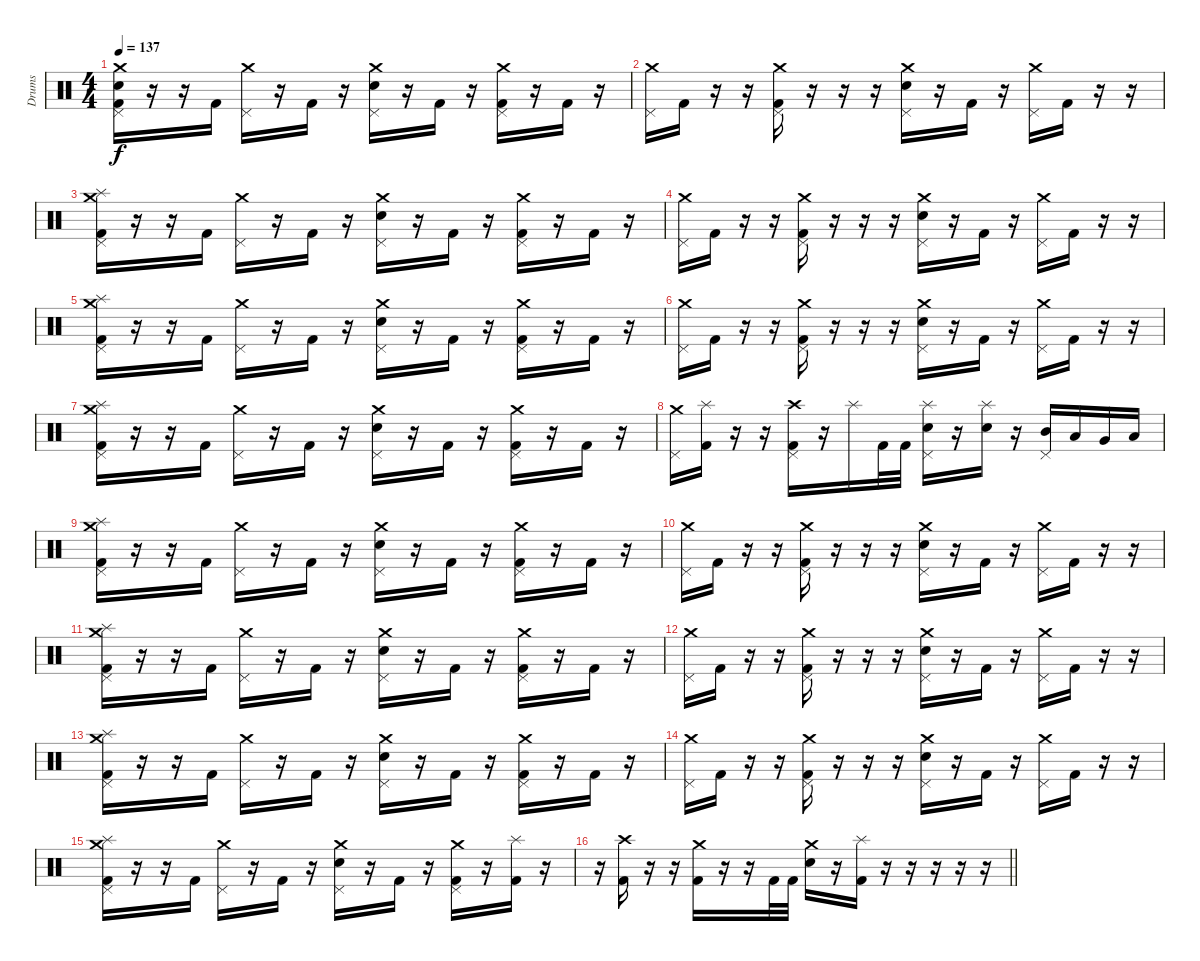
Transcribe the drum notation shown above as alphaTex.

\track ("Drums" "Drums") {instrument percussion}
\staff {score}
\articulation defaults
\ts (4 4)
\section ("" "")
\tempo 137
\clef neutral
\ks c
("Crash medium (hit)" "Pedal Hi-Hat (hit)" "Electric Snare (hit)" "Kick (hit) 2").16{dy f} r.16 r.16 "Kick (hit) 2".16 ("Crash medium (hit)" "Pedal Hi-Hat (hit)").16 r.16 "Kick (hit) 2".16 r.16 ("Crash medium (hit)" "Pedal Hi-Hat (hit)" "Electric Snare (hit)").16 r.16 "Kick (hit) 2".16 r.16 ("Crash medium (hit)" "Pedal Hi-Hat (hit)" "Kick (hit) 2").16 r.16 "Kick (hit) 2".16 r.16 |
("Crash medium (hit)" "Pedal Hi-Hat (hit)").16 "Kick (hit) 2".16 r.16 r.16 ("Crash medium (hit)" "Pedal Hi-Hat (hit)" "Kick (hit) 2").16 r.16 r.16 r.16 ("Crash medium (hit)" "Pedal Hi-Hat (hit)" "Electric Snare (hit)").16 r.16 "Kick (hit) 2".16 r.16 ("Crash medium (hit)" "Pedal Hi-Hat (hit)").16 "Kick (hit) 2".16 r.16 r.16 |
("Splash (hit)" "Crash medium (hit)" "Pedal Hi-Hat (hit)" "Kick (hit) 2").16 r.16 r.16 "Kick (hit) 2".16 ("Crash medium (hit)" "Pedal Hi-Hat (hit)").16 r.16 "Kick (hit) 2".16 r.16 ("Crash medium (hit)" "Pedal Hi-Hat (hit)" "Electric Snare (hit)").16 r.16 "Kick (hit) 2".16 r.16 ("Crash medium (hit)" "Pedal Hi-Hat (hit)" "Kick (hit) 2").16 r.16 "Kick (hit) 2".16 r.16 |
("Crash medium (hit)" "Pedal Hi-Hat (hit)").16 "Kick (hit) 2".16 r.16 r.16 ("Crash medium (hit)" "Pedal Hi-Hat (hit)" "Kick (hit) 2").16 r.16 r.16 r.16 ("Crash medium (hit)" "Pedal Hi-Hat (hit)" "Electric Snare (hit)").16 r.16 "Kick (hit) 2".16 r.16 ("Crash medium (hit)" "Pedal Hi-Hat (hit)").16 "Kick (hit) 2".16 r.16 r.16 |
("Splash (hit)" "Crash medium (hit)" "Pedal Hi-Hat (hit)" "Kick (hit) 2").16 r.16 r.16 "Kick (hit) 2".16 ("Crash medium (hit)" "Pedal Hi-Hat (hit)").16 r.16 "Kick (hit) 2".16 r.16 ("Crash medium (hit)" "Pedal Hi-Hat (hit)" "Electric Snare (hit)").16 r.16 "Kick (hit) 2".16 r.16 ("Crash medium (hit)" "Pedal Hi-Hat (hit)" "Kick (hit) 2").16 r.16 "Kick (hit) 2".16 r.16 |
("Crash medium (hit)" "Pedal Hi-Hat (hit)").16 "Kick (hit) 2".16 r.16 r.16 ("Crash medium (hit)" "Pedal Hi-Hat (hit)" "Kick (hit) 2").16 r.16 r.16 r.16 ("Crash medium (hit)" "Pedal Hi-Hat (hit)" "Electric Snare (hit)").16 r.16 "Kick (hit) 2".16 r.16 ("Crash medium (hit)" "Pedal Hi-Hat (hit)").16 "Kick (hit) 2".16 r.16 r.16 |
("Splash (hit)" "Crash medium (hit)" "Pedal Hi-Hat (hit)" "Kick (hit) 2").16 r.16 r.16 "Kick (hit) 2".16 ("Crash medium (hit)" "Pedal Hi-Hat (hit)").16 r.16 "Kick (hit) 2".16 r.16 ("Crash medium (hit)" "Pedal Hi-Hat (hit)" "Electric Snare (hit)").16 r.16 "Kick (hit) 2".16 r.16 ("Crash medium (hit)" "Pedal Hi-Hat (hit)" "Kick (hit) 2").16 r.16 "Kick (hit) 2".16 r.16 |
("Crash medium (hit)" "Pedal Hi-Hat (hit)").16 ("Splash (hit)" "Kick (hit) 2").16 r.16 r.16 ("Crash high (hit)" "Pedal Hi-Hat (hit)" "Kick (hit) 2").16 r.16 "Splash (hit)".16 "Kick (hit) 2".32 "Kick (hit) 2".32 ("Splash (hit)" "Pedal Hi-Hat (hit)" "Electric Snare (hit)").16 r.16 ("Splash (hit)" "Electric Snare (hit)").16 r.16 ("Mid Tom (hit)" "Pedal Hi-Hat (hit)").16 "Low Tom (hit)".16 "Very Low Tom (hit)".16 "Low Floor Tom (hit)".16 |
("Splash (hit)" "Crash medium (hit)" "Pedal Hi-Hat (hit)" "Kick (hit) 2").16 r.16 r.16 "Kick (hit) 2".16 ("Crash medium (hit)" "Pedal Hi-Hat (hit)").16 r.16 "Kick (hit) 2".16 r.16 ("Crash medium (hit)" "Pedal Hi-Hat (hit)" "Electric Snare (hit)").16 r.16 "Kick (hit) 2".16 r.16 ("Crash medium (hit)" "Pedal Hi-Hat (hit)" "Kick (hit) 2").16 r.16 "Kick (hit) 2".16 r.16 |
("Crash medium (hit)" "Pedal Hi-Hat (hit)").16 "Kick (hit) 2".16 r.16 r.16 ("Crash medium (hit)" "Pedal Hi-Hat (hit)" "Kick (hit) 2").16 r.16 r.16 r.16 ("Crash medium (hit)" "Pedal Hi-Hat (hit)" "Electric Snare (hit)").16 r.16 "Kick (hit) 2".16 r.16 ("Crash medium (hit)" "Pedal Hi-Hat (hit)").16 "Kick (hit) 2".16 r.16 r.16 |
("Splash (hit)" "Crash medium (hit)" "Pedal Hi-Hat (hit)" "Kick (hit) 2").16 r.16 r.16 "Kick (hit) 2".16 ("Crash medium (hit)" "Pedal Hi-Hat (hit)").16 r.16 "Kick (hit) 2".16 r.16 ("Crash medium (hit)" "Pedal Hi-Hat (hit)" "Electric Snare (hit)").16 r.16 "Kick (hit) 2".16 r.16 ("Crash medium (hit)" "Pedal Hi-Hat (hit)" "Kick (hit) 2").16 r.16 "Kick (hit) 2".16 r.16 |
("Crash medium (hit)" "Pedal Hi-Hat (hit)").16 "Kick (hit) 2".16 r.16 r.16 ("Crash medium (hit)" "Pedal Hi-Hat (hit)" "Kick (hit) 2").16 r.16 r.16 r.16 ("Crash medium (hit)" "Pedal Hi-Hat (hit)" "Electric Snare (hit)").16 r.16 "Kick (hit) 2".16 r.16 ("Crash medium (hit)" "Pedal Hi-Hat (hit)").16 "Kick (hit) 2".16 r.16 r.16 |
("Splash (hit)" "Crash medium (hit)" "Pedal Hi-Hat (hit)" "Kick (hit) 2").16 r.16 r.16 "Kick (hit) 2".16 ("Crash medium (hit)" "Pedal Hi-Hat (hit)").16 r.16 "Kick (hit) 2".16 r.16 ("Crash medium (hit)" "Pedal Hi-Hat (hit)" "Electric Snare (hit)").16 r.16 "Kick (hit) 2".16 r.16 ("Crash medium (hit)" "Pedal Hi-Hat (hit)" "Kick (hit) 2").16 r.16 "Kick (hit) 2".16 r.16 |
("Crash medium (hit)" "Pedal Hi-Hat (hit)").16 "Kick (hit) 2".16 r.16 r.16 ("Crash medium (hit)" "Pedal Hi-Hat (hit)" "Kick (hit) 2").16 r.16 r.16 r.16 ("Crash medium (hit)" "Pedal Hi-Hat (hit)" "Electric Snare (hit)").16 r.16 "Kick (hit) 2".16 r.16 ("Crash medium (hit)" "Pedal Hi-Hat (hit)").16 "Kick (hit) 2".16 r.16 r.16 |
("Splash (hit)" "Crash medium (hit)" "Pedal Hi-Hat (hit)" "Kick (hit) 2").16 r.16 r.16 "Kick (hit) 2".16 ("Crash medium (hit)" "Pedal Hi-Hat (hit)").16 r.16 "Kick (hit) 2".16 r.16 ("Crash medium (hit)" "Pedal Hi-Hat (hit)" "Electric Snare (hit)").16 r.16 "Kick (hit) 2".16 r.16 ("Crash medium (hit)" "Pedal Hi-Hat (hit)" "Kick (hit) 2").16 r.16 ("Splash (hit)" "Kick (hit) 2").16 r.16 |
\barLineRight lightlight
r.16 ("Crash high (hit)" "Kick (hit) 2").16 r.16 r.16 ("Crash medium (hit)" "Kick (hit) 2").16 r.16 r.16 "Kick (hit) 2".32 "Kick (hit) 2".32 ("Crash medium (hit)" "Electric Snare (hit)").16 r.16 ("Splash (hit)" "Kick (hit) 2").16 r.16 r.16 r.16 r.16 r.16
